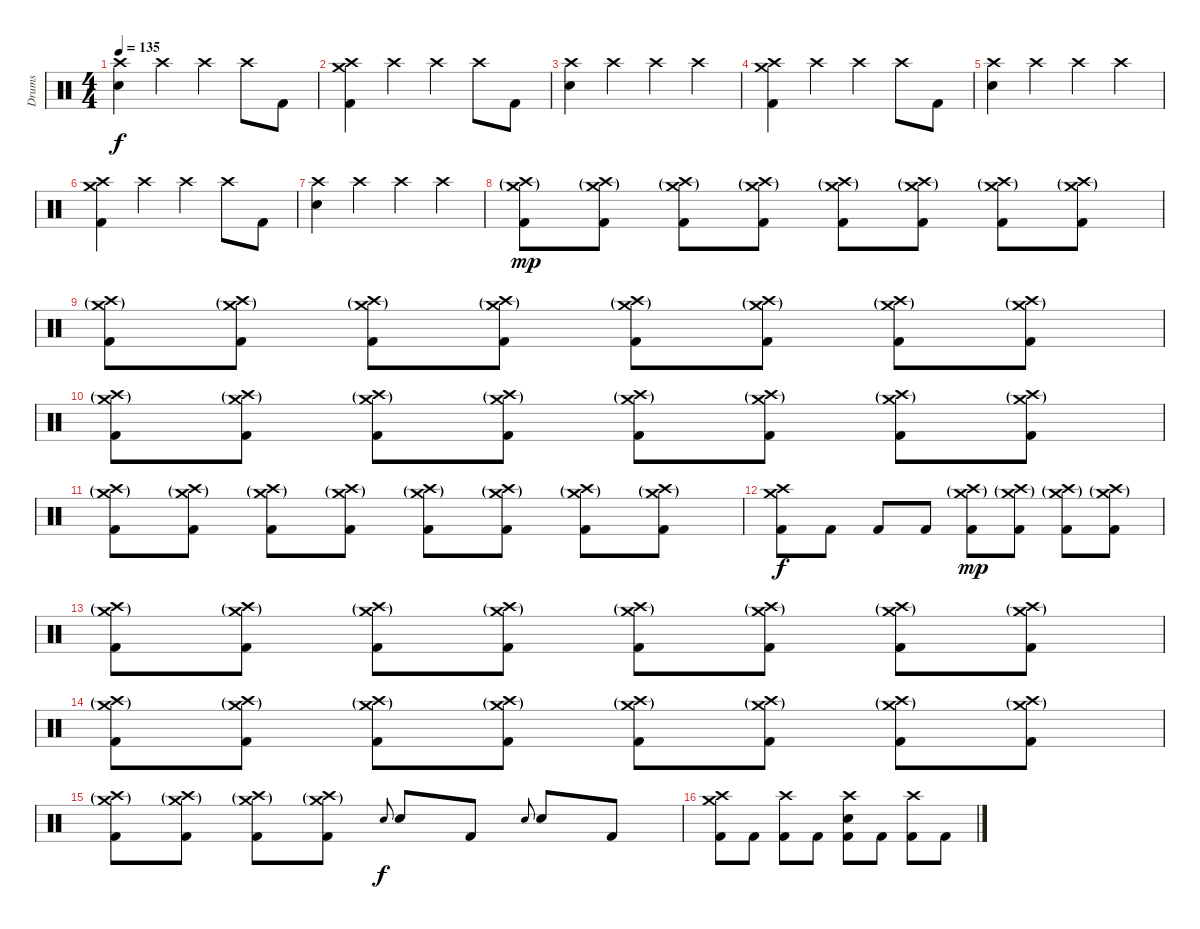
\track ("Drums" "Drums") {instrument percussion}
\staff {score}
\articulation defaults
\ts (4 4)
\tempo 135
\clef neutral
\ks c
("Crash high (hit)" "Electric Snare (hit)").4{dy f} "Crash high (hit)".4 "Crash high (hit)".4 "Crash high (hit)".8 "Kick (hit) 2".8 |
("Crash high (hit)" "Crash medium (hit)" "Kick (hit) 2").4 "Crash high (hit)".4 "Crash high (hit)".4 "Crash high (hit)".8 "Kick (hit) 2".8 |
("Crash high (hit)" "Electric Snare (hit)").4 "Crash high (hit)".4 "Crash high (hit)".4 "Crash high (hit)".4 |
("Crash high (hit)" "Crash medium (hit)" "Kick (hit) 2").4 "Crash high (hit)".4 "Crash high (hit)".4 "Crash high (hit)".8 "Kick (hit) 2".8 |
("Crash high (hit)" "Electric Snare (hit)").4 "Crash high (hit)".4 "Crash high (hit)".4 "Crash high (hit)".4 |
("Crash high (hit)" "Crash medium (hit)" "Kick (hit) 2").4 "Crash high (hit)".4 "Crash high (hit)".4 "Crash high (hit)".8 "Kick (hit) 2".8 |
("Crash high (hit)" "Electric Snare (hit)").4 "Crash high (hit)".4 "Crash high (hit)".4 "Crash high (hit)".4 |
("Crash high (hit)"{g} "Crash medium (hit)"{g} "Kick (hit) 2").8{dy mp} ("Crash high (hit)"{g} "Crash medium (hit)"{g} "Kick (hit) 2").8 ("Crash high (hit)"{g} "Crash medium (hit)"{g} "Kick (hit) 2").8 ("Crash high (hit)"{g} "Crash medium (hit)"{g} "Kick (hit) 2").8 ("Crash high (hit)"{g} "Crash medium (hit)"{g} "Kick (hit) 2").8 ("Crash high (hit)"{g} "Crash medium (hit)"{g} "Kick (hit) 2").8 ("Crash high (hit)"{g} "Crash medium (hit)"{g} "Kick (hit) 2").8 ("Crash high (hit)"{g} "Crash medium (hit)"{g} "Kick (hit) 2").8 |
("Crash high (hit)"{g} "Crash medium (hit)"{g} "Kick (hit) 2").8 ("Crash high (hit)"{g} "Crash medium (hit)"{g} "Kick (hit) 2").8 ("Crash high (hit)"{g} "Crash medium (hit)"{g} "Kick (hit) 2").8 ("Crash high (hit)"{g} "Crash medium (hit)"{g} "Kick (hit) 2").8 ("Crash high (hit)"{g} "Crash medium (hit)"{g} "Kick (hit) 2").8 ("Crash high (hit)"{g} "Crash medium (hit)"{g} "Kick (hit) 2").8 ("Crash high (hit)"{g} "Crash medium (hit)"{g} "Kick (hit) 2").8 ("Crash high (hit)"{g} "Crash medium (hit)"{g} "Kick (hit) 2").8 |
("Crash high (hit)"{g} "Crash medium (hit)"{g} "Kick (hit) 2").8 ("Crash high (hit)"{g} "Crash medium (hit)"{g} "Kick (hit) 2").8 ("Crash high (hit)"{g} "Crash medium (hit)"{g} "Kick (hit) 2").8 ("Crash high (hit)"{g} "Crash medium (hit)"{g} "Kick (hit) 2").8 ("Crash high (hit)"{g} "Crash medium (hit)"{g} "Kick (hit) 2").8 ("Crash high (hit)"{g} "Crash medium (hit)"{g} "Kick (hit) 2").8 ("Crash high (hit)"{g} "Crash medium (hit)"{g} "Kick (hit) 2").8 ("Crash high (hit)"{g} "Crash medium (hit)"{g} "Kick (hit) 2").8 |
("Crash high (hit)"{g} "Crash medium (hit)"{g} "Kick (hit) 2").8 ("Crash high (hit)"{g} "Crash medium (hit)"{g} "Kick (hit) 2").8 ("Crash high (hit)"{g} "Crash medium (hit)"{g} "Kick (hit) 2").8 ("Crash high (hit)"{g} "Crash medium (hit)"{g} "Kick (hit) 2").8 ("Crash high (hit)"{g} "Crash medium (hit)"{g} "Kick (hit) 2").8 ("Crash high (hit)"{g} "Crash medium (hit)"{g} "Kick (hit) 2").8 ("Crash high (hit)"{g} "Crash medium (hit)"{g} "Kick (hit) 2").8 ("Crash high (hit)"{g} "Crash medium (hit)"{g} "Kick (hit) 2").8 |
("Crash high (hit)" "Crash medium (hit)" "Kick (hit) 2").8{dy f} "Kick (hit) 2".8 "Kick (hit) 2".8 "Kick (hit) 2".8 ("Crash high (hit)"{g} "Crash medium (hit)"{g} "Kick (hit) 2").8{dy mp} ("Crash high (hit)"{g} "Crash medium (hit)"{g} "Kick (hit) 2").8 ("Crash high (hit)"{g} "Crash medium (hit)"{g} "Kick (hit) 2").8 ("Crash high (hit)"{g} "Crash medium (hit)"{g} "Kick (hit) 2").8 |
("Crash high (hit)"{g} "Crash medium (hit)"{g} "Kick (hit) 2").8 ("Crash high (hit)"{g} "Crash medium (hit)"{g} "Kick (hit) 2").8 ("Crash high (hit)"{g} "Crash medium (hit)"{g} "Kick (hit) 2").8 ("Crash high (hit)"{g} "Crash medium (hit)"{g} "Kick (hit) 2").8 ("Crash high (hit)"{g} "Crash medium (hit)"{g} "Kick (hit) 2").8 ("Crash high (hit)"{g} "Crash medium (hit)"{g} "Kick (hit) 2").8 ("Crash high (hit)"{g} "Crash medium (hit)"{g} "Kick (hit) 2").8 ("Crash high (hit)"{g} "Crash medium (hit)"{g} "Kick (hit) 2").8 |
("Crash high (hit)"{g} "Crash medium (hit)"{g} "Kick (hit) 2").8 ("Crash high (hit)"{g} "Crash medium (hit)"{g} "Kick (hit) 2").8 ("Crash high (hit)"{g} "Crash medium (hit)"{g} "Kick (hit) 2").8 ("Crash high (hit)"{g} "Crash medium (hit)"{g} "Kick (hit) 2").8 ("Crash high (hit)"{g} "Crash medium (hit)"{g} "Kick (hit) 2").8 ("Crash high (hit)"{g} "Crash medium (hit)"{g} "Kick (hit) 2").8 ("Crash high (hit)"{g} "Crash medium (hit)"{g} "Kick (hit) 2").8 ("Crash high (hit)"{g} "Crash medium (hit)"{g} "Kick (hit) 2").8 |
("Crash high (hit)"{g} "Crash medium (hit)"{g} "Kick (hit) 2").8 ("Crash high (hit)"{g} "Crash medium (hit)"{g} "Kick (hit) 2").8 ("Crash high (hit)"{g} "Crash medium (hit)"{g} "Kick (hit) 2").8 ("Crash high (hit)"{g} "Crash medium (hit)"{g} "Kick (hit) 2").8 "Electric Snare (hit)".8{gr onbeat dy f} "Electric Snare (hit)".8 "Kick (hit) 2".8 "Electric Snare (hit)".8{gr onbeat} "Electric Snare (hit)".8 "Kick (hit) 2".8 |
("Crash high (hit)" "Crash medium (hit)" "Kick (hit) 2").8 "Kick (hit) 2".8 ("Crash high (hit)" "Kick (hit) 2").8 "Kick (hit) 2".8 ("Crash high (hit)" "Electric Snare (hit)" "Kick (hit) 2").8 "Kick (hit) 2".8 ("Crash high (hit)" "Kick (hit) 2").8 "Kick (hit) 2".8
